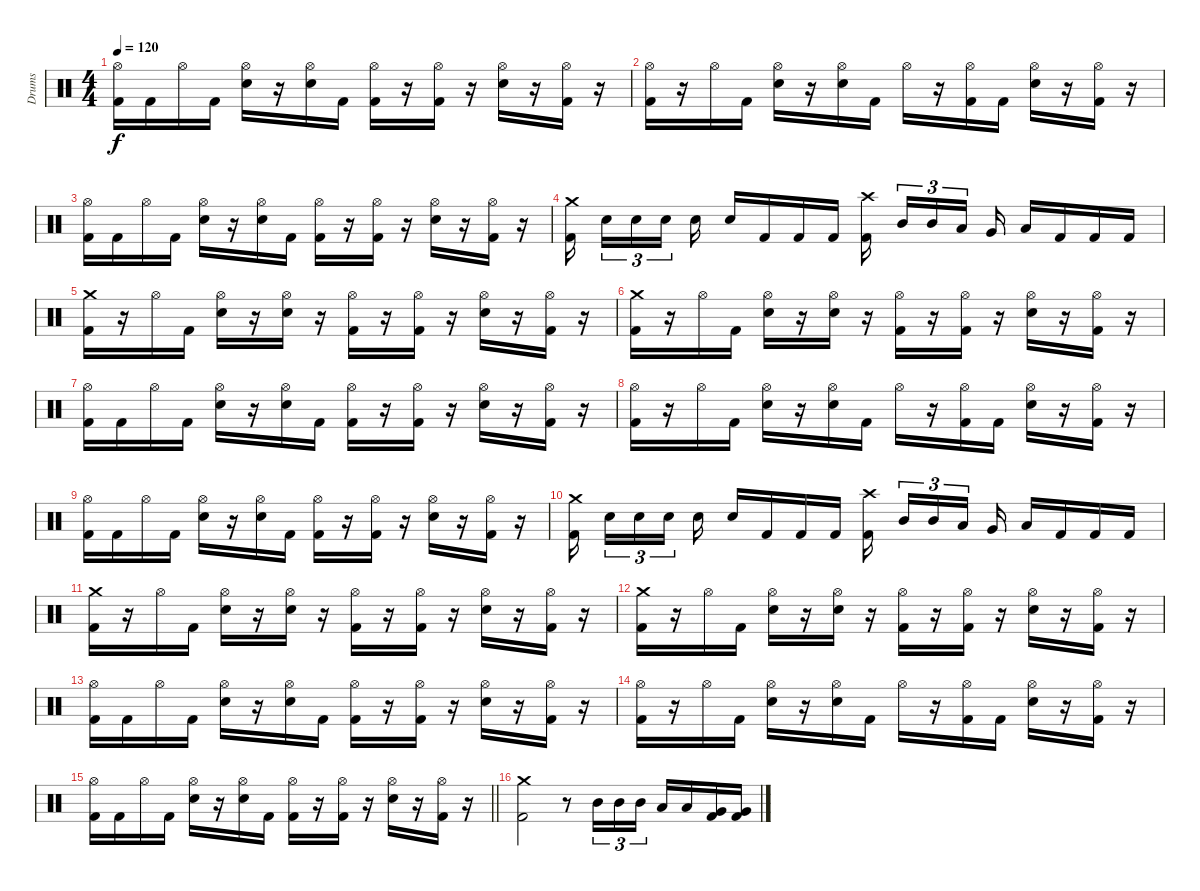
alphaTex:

\track ("Drums" "Drums") {instrument percussion}
\staff {score}
\articulation defaults
\ts (4 4)
\tempo 120
\clef neutral
\ks c
("Hi-Hat (open)" "Kick (hit) 2").16{dy f} "Kick (hit) 2".16 "Hi-Hat (open)".16 "Kick (hit) 2".16 ("Hi-Hat (open)" "Electric Snare (hit)").16 r.16 ("Hi-Hat (open)" "Electric Snare (hit)").16 "Kick (hit) 2".16 ("Hi-Hat (open)" "Kick (hit) 2").16 r.16 ("Hi-Hat (open)" "Kick (hit) 2").16 r.16 ("Hi-Hat (open)" "Electric Snare (hit)").16 r.16 ("Hi-Hat (open)" "Kick (hit) 2").16 r.16 |
("Hi-Hat (open)" "Kick (hit) 2").16 r.16 "Hi-Hat (open)".16 "Kick (hit) 2".16 ("Hi-Hat (open)" "Electric Snare (hit)").16 r.16 ("Hi-Hat (open)" "Electric Snare (hit)").16 "Kick (hit) 2".16 "Hi-Hat (open)".16 r.16 ("Hi-Hat (open)" "Kick (hit) 2").16 "Kick (hit) 2".16 ("Hi-Hat (open)" "Electric Snare (hit)").16 r.16 ("Hi-Hat (open)" "Kick (hit) 2").16 r.16 |
("Hi-Hat (open)" "Kick (hit) 2").16 "Kick (hit) 2".16 "Hi-Hat (open)".16 "Kick (hit) 2".16 ("Hi-Hat (open)" "Electric Snare (hit)").16 r.16 ("Hi-Hat (open)" "Electric Snare (hit)").16 "Kick (hit) 2".16 ("Hi-Hat (open)" "Kick (hit) 2").16 r.16 ("Hi-Hat (open)" "Kick (hit) 2").16 r.16 ("Hi-Hat (open)" "Electric Snare (hit)").16 r.16 ("Hi-Hat (open)" "Kick (hit) 2").16 r.16 |
("Crash medium (hit)" "Kick (hit) 2").16 "Electric Snare (hit)".16{tu (3 2)} "Electric Snare (hit)".16{tu (3 2)} "Electric Snare (hit)".16{tu (3 2)} "Electric Snare (hit)".16 "Electric Snare (hit)".16 "Kick (hit) 2".16 "Kick (hit) 2".16 "Kick (hit) 2".16 ("Crash high (hit)" "Kick (hit) 2").16 "Mid Tom (hit)".16{tu (3 2)} "Mid Tom (hit)".16{tu (3 2)} "Low Tom (hit)".16{tu (3 2)} "Very Low Tom (hit)".16 "Low Floor Tom (hit)".16 "Kick (hit) 2".16 "Kick (hit) 2".16 "Kick (hit) 2".16 |
("Crash medium (hit)" "Kick (hit) 2").16 r.16 "Hi-Hat (open)".16 "Kick (hit) 2".16 ("Hi-Hat (open)" "Electric Snare (hit)").16 r.16 ("Hi-Hat (open)" "Electric Snare (hit)").16 r.16 ("Hi-Hat (open)" "Kick (hit) 2").16 r.16 ("Hi-Hat (open)" "Kick (hit) 2").16 r.16 ("Hi-Hat (open)" "Electric Snare (hit)").16 r.16 ("Hi-Hat (open)" "Kick (hit) 2").16 r.16 |
("Crash medium (hit)" "Kick (hit) 2").16 r.16 "Hi-Hat (open)".16 "Kick (hit) 2".16 ("Hi-Hat (open)" "Electric Snare (hit)").16 r.16 ("Hi-Hat (open)" "Electric Snare (hit)").16 r.16 ("Hi-Hat (open)" "Kick (hit) 2").16 r.16 ("Hi-Hat (open)" "Kick (hit) 2").16 r.16 ("Hi-Hat (open)" "Electric Snare (hit)").16 r.16 ("Hi-Hat (open)" "Kick (hit) 2").16 r.16 |
("Hi-Hat (open)" "Kick (hit) 2").16 "Kick (hit) 2".16 "Hi-Hat (open)".16 "Kick (hit) 2".16 ("Hi-Hat (open)" "Electric Snare (hit)").16 r.16 ("Hi-Hat (open)" "Electric Snare (hit)").16 "Kick (hit) 2".16 ("Hi-Hat (open)" "Kick (hit) 2").16 r.16 ("Hi-Hat (open)" "Kick (hit) 2").16 r.16 ("Hi-Hat (open)" "Electric Snare (hit)").16 r.16 ("Hi-Hat (open)" "Kick (hit) 2").16 r.16 |
("Hi-Hat (open)" "Kick (hit) 2").16 r.16 "Hi-Hat (open)".16 "Kick (hit) 2".16 ("Hi-Hat (open)" "Electric Snare (hit)").16 r.16 ("Hi-Hat (open)" "Electric Snare (hit)").16 "Kick (hit) 2".16 "Hi-Hat (open)".16 r.16 ("Hi-Hat (open)" "Kick (hit) 2").16 "Kick (hit) 2".16 ("Hi-Hat (open)" "Electric Snare (hit)").16 r.16 ("Hi-Hat (open)" "Kick (hit) 2").16 r.16 |
("Hi-Hat (open)" "Kick (hit) 2").16 "Kick (hit) 2".16 "Hi-Hat (open)".16 "Kick (hit) 2".16 ("Hi-Hat (open)" "Electric Snare (hit)").16 r.16 ("Hi-Hat (open)" "Electric Snare (hit)").16 "Kick (hit) 2".16 ("Hi-Hat (open)" "Kick (hit) 2").16 r.16 ("Hi-Hat (open)" "Kick (hit) 2").16 r.16 ("Hi-Hat (open)" "Electric Snare (hit)").16 r.16 ("Hi-Hat (open)" "Kick (hit) 2").16 r.16 |
("Crash medium (hit)" "Kick (hit) 2").16 "Electric Snare (hit)".16{tu (3 2)} "Electric Snare (hit)".16{tu (3 2)} "Electric Snare (hit)".16{tu (3 2)} "Electric Snare (hit)".16 "Electric Snare (hit)".16 "Kick (hit) 2".16 "Kick (hit) 2".16 "Kick (hit) 2".16 ("Crash high (hit)" "Kick (hit) 2").16 "Mid Tom (hit)".16{tu (3 2)} "Mid Tom (hit)".16{tu (3 2)} "Low Tom (hit)".16{tu (3 2)} "Very Low Tom (hit)".16 "Low Floor Tom (hit)".16 "Kick (hit) 2".16 "Kick (hit) 2".16 "Kick (hit) 2".16 |
("Crash medium (hit)" "Kick (hit) 2").16 r.16 "Hi-Hat (open)".16 "Kick (hit) 2".16 ("Hi-Hat (open)" "Electric Snare (hit)").16 r.16 ("Hi-Hat (open)" "Electric Snare (hit)").16 r.16 ("Hi-Hat (open)" "Kick (hit) 2").16 r.16 ("Hi-Hat (open)" "Kick (hit) 2").16 r.16 ("Hi-Hat (open)" "Electric Snare (hit)").16 r.16 ("Hi-Hat (open)" "Kick (hit) 2").16 r.16 |
("Crash medium (hit)" "Kick (hit) 2").16 r.16 "Hi-Hat (open)".16 "Kick (hit) 2".16 ("Hi-Hat (open)" "Electric Snare (hit)").16 r.16 ("Hi-Hat (open)" "Electric Snare (hit)").16 r.16 ("Hi-Hat (open)" "Kick (hit) 2").16 r.16 ("Hi-Hat (open)" "Kick (hit) 2").16 r.16 ("Hi-Hat (open)" "Electric Snare (hit)").16 r.16 ("Hi-Hat (open)" "Kick (hit) 2").16 r.16 |
("Hi-Hat (open)" "Kick (hit) 2").16 "Kick (hit) 2".16 "Hi-Hat (open)".16 "Kick (hit) 2".16 ("Hi-Hat (open)" "Electric Snare (hit)").16 r.16 ("Hi-Hat (open)" "Electric Snare (hit)").16 "Kick (hit) 2".16 ("Hi-Hat (open)" "Kick (hit) 2").16 r.16 ("Hi-Hat (open)" "Kick (hit) 2").16 r.16 ("Hi-Hat (open)" "Electric Snare (hit)").16 r.16 ("Hi-Hat (open)" "Kick (hit) 2").16 r.16 |
("Hi-Hat (open)" "Kick (hit) 2").16 r.16 "Hi-Hat (open)".16 "Kick (hit) 2".16 ("Hi-Hat (open)" "Electric Snare (hit)").16 r.16 ("Hi-Hat (open)" "Electric Snare (hit)").16 "Kick (hit) 2".16 "Hi-Hat (open)".16 r.16 ("Hi-Hat (open)" "Kick (hit) 2").16 "Kick (hit) 2".16 ("Hi-Hat (open)" "Electric Snare (hit)").16 r.16 ("Hi-Hat (open)" "Kick (hit) 2").16 r.16 |
\barLineRight lightlight
("Hi-Hat (open)" "Kick (hit) 2").16 "Kick (hit) 2".16 "Hi-Hat (open)".16 "Kick (hit) 2".16 ("Hi-Hat (open)" "Electric Snare (hit)").16 r.16 ("Hi-Hat (open)" "Electric Snare (hit)").16 "Kick (hit) 2".16 ("Hi-Hat (open)" "Kick (hit) 2").16 r.16 ("Hi-Hat (open)" "Kick (hit) 2").16 r.16 ("Hi-Hat (open)" "Electric Snare (hit)").16 r.16 ("Hi-Hat (open)" "Kick (hit) 2").16 r.16 |
\section ("" "")
("Crash medium (hit)" "Kick (hit) 2").2 r.8 "Mid Tom (hit)".16{tu (3 2)} "Mid Tom (hit)".16{tu (3 2)} "Mid Tom (hit)".16{tu (3 2)} "Low Tom (hit)".16 "Low Tom (hit)".16 ("Very Low Tom (hit)" "Kick (hit) 2").16 ("Very Low Tom (hit)" "Kick (hit) 2").16
